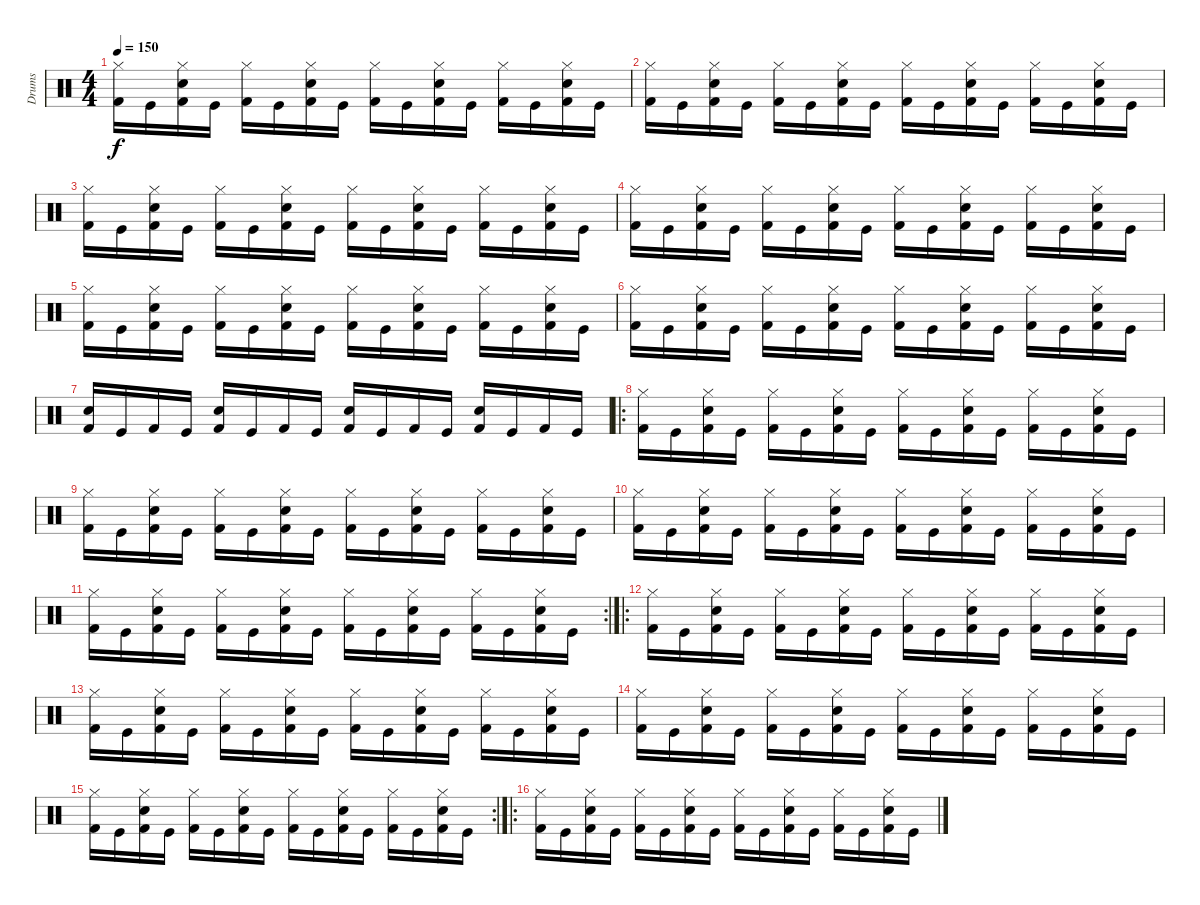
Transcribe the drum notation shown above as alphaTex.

\track ("Drums" "Drums") {instrument percussion}
\staff {score}
\articulation defaults
\ts (4 4)
\tempo 150
\clef neutral
\ks c
("Hi-Hat (closed)" "Kick (hit) 2").16{dy f} "Kick (hit)".16 ("Hi-Hat (closed)" "Snare (hit) 2" "Kick (hit) 2").16 "Kick (hit)".16 ("Hi-Hat (closed)" "Kick (hit) 2").16 "Kick (hit)".16 ("Hi-Hat (closed)" "Snare (hit) 2" "Kick (hit) 2").16 "Kick (hit)".16 ("Hi-Hat (closed)" "Kick (hit) 2").16 "Kick (hit)".16 ("Hi-Hat (closed)" "Snare (hit) 2" "Kick (hit) 2").16 "Kick (hit)".16 ("Hi-Hat (closed)" "Kick (hit) 2").16 "Kick (hit)".16 ("Hi-Hat (closed)" "Snare (hit) 2" "Kick (hit) 2").16 "Kick (hit)".16 |
("Hi-Hat (closed)" "Kick (hit) 2").16 "Kick (hit)".16 ("Hi-Hat (closed)" "Snare (hit) 2" "Kick (hit) 2").16 "Kick (hit)".16 ("Hi-Hat (closed)" "Kick (hit) 2").16 "Kick (hit)".16 ("Hi-Hat (closed)" "Snare (hit) 2" "Kick (hit) 2").16 "Kick (hit)".16 ("Hi-Hat (closed)" "Kick (hit) 2").16 "Kick (hit)".16 ("Hi-Hat (closed)" "Snare (hit) 2" "Kick (hit) 2").16 "Kick (hit)".16 ("Hi-Hat (closed)" "Kick (hit) 2").16 "Kick (hit)".16 ("Hi-Hat (closed)" "Snare (hit) 2" "Kick (hit) 2").16 "Kick (hit)".16 |
("Hi-Hat (closed)" "Kick (hit) 2").16 "Kick (hit)".16 ("Hi-Hat (closed)" "Snare (hit) 2" "Kick (hit) 2").16 "Kick (hit)".16 ("Hi-Hat (closed)" "Kick (hit) 2").16 "Kick (hit)".16 ("Hi-Hat (closed)" "Snare (hit) 2" "Kick (hit) 2").16 "Kick (hit)".16 ("Hi-Hat (closed)" "Kick (hit) 2").16 "Kick (hit)".16 ("Hi-Hat (closed)" "Snare (hit) 2" "Kick (hit) 2").16 "Kick (hit)".16 ("Hi-Hat (closed)" "Kick (hit) 2").16 "Kick (hit)".16 ("Hi-Hat (closed)" "Snare (hit) 2" "Kick (hit) 2").16 "Kick (hit)".16 |
("Hi-Hat (closed)" "Kick (hit) 2").16 "Kick (hit)".16 ("Hi-Hat (closed)" "Snare (hit) 2" "Kick (hit) 2").16 "Kick (hit)".16 ("Hi-Hat (closed)" "Kick (hit) 2").16 "Kick (hit)".16 ("Hi-Hat (closed)" "Snare (hit) 2" "Kick (hit) 2").16 "Kick (hit)".16 ("Hi-Hat (closed)" "Kick (hit) 2").16 "Kick (hit)".16 ("Hi-Hat (closed)" "Snare (hit) 2" "Kick (hit) 2").16 "Kick (hit)".16 ("Hi-Hat (closed)" "Kick (hit) 2").16 "Kick (hit)".16 ("Hi-Hat (closed)" "Snare (hit) 2" "Kick (hit) 2").16 "Kick (hit)".16 |
("Hi-Hat (closed)" "Kick (hit) 2").16 "Kick (hit)".16 ("Hi-Hat (closed)" "Snare (hit) 2" "Kick (hit) 2").16 "Kick (hit)".16 ("Hi-Hat (closed)" "Kick (hit) 2").16 "Kick (hit)".16 ("Hi-Hat (closed)" "Snare (hit) 2" "Kick (hit) 2").16 "Kick (hit)".16 ("Hi-Hat (closed)" "Kick (hit) 2").16 "Kick (hit)".16 ("Hi-Hat (closed)" "Snare (hit) 2" "Kick (hit) 2").16 "Kick (hit)".16 ("Hi-Hat (closed)" "Kick (hit) 2").16 "Kick (hit)".16 ("Hi-Hat (closed)" "Snare (hit) 2" "Kick (hit) 2").16 "Kick (hit)".16 |
("Hi-Hat (closed)" "Kick (hit) 2").16 "Kick (hit)".16 ("Hi-Hat (closed)" "Snare (hit) 2" "Kick (hit) 2").16 "Kick (hit)".16 ("Hi-Hat (closed)" "Kick (hit) 2").16 "Kick (hit)".16 ("Hi-Hat (closed)" "Snare (hit) 2" "Kick (hit) 2").16 "Kick (hit)".16 ("Hi-Hat (closed)" "Kick (hit) 2").16 "Kick (hit)".16 ("Hi-Hat (closed)" "Snare (hit) 2" "Kick (hit) 2").16 "Kick (hit)".16 ("Hi-Hat (closed)" "Kick (hit) 2").16 "Kick (hit)".16 ("Hi-Hat (closed)" "Snare (hit) 2" "Kick (hit) 2").16 "Kick (hit)".16 |
("Snare (hit) 2" "Kick (hit) 2").16 "Kick (hit)".16 "Kick (hit) 2".16 "Kick (hit)".16 ("Snare (hit) 2" "Kick (hit) 2").16 "Kick (hit)".16 "Kick (hit) 2".16 "Kick (hit)".16 ("Snare (hit) 2" "Kick (hit) 2").16 "Kick (hit)".16 "Kick (hit) 2".16 "Kick (hit)".16 ("Snare (hit) 2" "Kick (hit) 2").16 "Kick (hit)".16 "Kick (hit) 2".16 "Kick (hit)".16 |
\ro
("Hi-Hat (closed)" "Kick (hit) 2").16 "Kick (hit)".16 ("Hi-Hat (closed)" "Snare (hit) 2" "Kick (hit) 2").16 "Kick (hit)".16 ("Hi-Hat (closed)" "Kick (hit) 2").16 "Kick (hit)".16 ("Hi-Hat (closed)" "Snare (hit) 2" "Kick (hit) 2").16 "Kick (hit)".16 ("Hi-Hat (closed)" "Kick (hit) 2").16 "Kick (hit)".16 ("Hi-Hat (closed)" "Snare (hit) 2" "Kick (hit) 2").16 "Kick (hit)".16 ("Hi-Hat (closed)" "Kick (hit) 2").16 "Kick (hit)".16 ("Hi-Hat (closed)" "Snare (hit) 2" "Kick (hit) 2").16 "Kick (hit)".16 |
("Hi-Hat (closed)" "Kick (hit) 2").16 "Kick (hit)".16 ("Hi-Hat (closed)" "Snare (hit) 2" "Kick (hit) 2").16 "Kick (hit)".16 ("Hi-Hat (closed)" "Kick (hit) 2").16 "Kick (hit)".16 ("Hi-Hat (closed)" "Snare (hit) 2" "Kick (hit) 2").16 "Kick (hit)".16 ("Hi-Hat (closed)" "Kick (hit) 2").16 "Kick (hit)".16 ("Hi-Hat (closed)" "Snare (hit) 2" "Kick (hit) 2").16 "Kick (hit)".16 ("Hi-Hat (closed)" "Kick (hit) 2").16 "Kick (hit)".16 ("Hi-Hat (closed)" "Snare (hit) 2" "Kick (hit) 2").16 "Kick (hit)".16 |
("Hi-Hat (closed)" "Kick (hit) 2").16 "Kick (hit)".16 ("Hi-Hat (closed)" "Snare (hit) 2" "Kick (hit) 2").16 "Kick (hit)".16 ("Hi-Hat (closed)" "Kick (hit) 2").16 "Kick (hit)".16 ("Hi-Hat (closed)" "Snare (hit) 2" "Kick (hit) 2").16 "Kick (hit)".16 ("Hi-Hat (closed)" "Kick (hit) 2").16 "Kick (hit)".16 ("Hi-Hat (closed)" "Snare (hit) 2" "Kick (hit) 2").16 "Kick (hit)".16 ("Hi-Hat (closed)" "Kick (hit) 2").16 "Kick (hit)".16 ("Hi-Hat (closed)" "Snare (hit) 2" "Kick (hit) 2").16 "Kick (hit)".16 |
\rc 2
("Hi-Hat (closed)" "Kick (hit) 2").16 "Kick (hit)".16 ("Hi-Hat (closed)" "Snare (hit) 2" "Kick (hit) 2").16 "Kick (hit)".16 ("Hi-Hat (closed)" "Kick (hit) 2").16 "Kick (hit)".16 ("Hi-Hat (closed)" "Snare (hit) 2" "Kick (hit) 2").16 "Kick (hit)".16 ("Hi-Hat (closed)" "Kick (hit) 2").16 "Kick (hit)".16 ("Hi-Hat (closed)" "Snare (hit) 2" "Kick (hit) 2").16 "Kick (hit)".16 ("Hi-Hat (closed)" "Kick (hit) 2").16 "Kick (hit)".16 ("Hi-Hat (closed)" "Snare (hit) 2" "Kick (hit) 2").16 "Kick (hit)".16 |
\ro
("Hi-Hat (closed)" "Kick (hit) 2").16 "Kick (hit)".16 ("Hi-Hat (closed)" "Snare (hit) 2" "Kick (hit) 2").16 "Kick (hit)".16 ("Hi-Hat (closed)" "Kick (hit) 2").16 "Kick (hit)".16 ("Hi-Hat (closed)" "Snare (hit) 2" "Kick (hit) 2").16 "Kick (hit)".16 ("Hi-Hat (closed)" "Kick (hit) 2").16 "Kick (hit)".16 ("Hi-Hat (closed)" "Snare (hit) 2" "Kick (hit) 2").16 "Kick (hit)".16 ("Hi-Hat (closed)" "Kick (hit) 2").16 "Kick (hit)".16 ("Hi-Hat (closed)" "Snare (hit) 2" "Kick (hit) 2").16 "Kick (hit)".16 |
("Hi-Hat (closed)" "Kick (hit) 2").16 "Kick (hit)".16 ("Hi-Hat (closed)" "Snare (hit) 2" "Kick (hit) 2").16 "Kick (hit)".16 ("Hi-Hat (closed)" "Kick (hit) 2").16 "Kick (hit)".16 ("Hi-Hat (closed)" "Snare (hit) 2" "Kick (hit) 2").16 "Kick (hit)".16 ("Hi-Hat (closed)" "Kick (hit) 2").16 "Kick (hit)".16 ("Hi-Hat (closed)" "Snare (hit) 2" "Kick (hit) 2").16 "Kick (hit)".16 ("Hi-Hat (closed)" "Kick (hit) 2").16 "Kick (hit)".16 ("Hi-Hat (closed)" "Snare (hit) 2" "Kick (hit) 2").16 "Kick (hit)".16 |
("Hi-Hat (closed)" "Kick (hit) 2").16 "Kick (hit)".16 ("Hi-Hat (closed)" "Snare (hit) 2" "Kick (hit) 2").16 "Kick (hit)".16 ("Hi-Hat (closed)" "Kick (hit) 2").16 "Kick (hit)".16 ("Hi-Hat (closed)" "Snare (hit) 2" "Kick (hit) 2").16 "Kick (hit)".16 ("Hi-Hat (closed)" "Kick (hit) 2").16 "Kick (hit)".16 ("Hi-Hat (closed)" "Snare (hit) 2" "Kick (hit) 2").16 "Kick (hit)".16 ("Hi-Hat (closed)" "Kick (hit) 2").16 "Kick (hit)".16 ("Hi-Hat (closed)" "Snare (hit) 2" "Kick (hit) 2").16 "Kick (hit)".16 |
\rc 2
("Hi-Hat (closed)" "Kick (hit) 2").16 "Kick (hit)".16 ("Hi-Hat (closed)" "Snare (hit) 2" "Kick (hit) 2").16 "Kick (hit)".16 ("Hi-Hat (closed)" "Kick (hit) 2").16 "Kick (hit)".16 ("Hi-Hat (closed)" "Snare (hit) 2" "Kick (hit) 2").16 "Kick (hit)".16 ("Hi-Hat (closed)" "Kick (hit) 2").16 "Kick (hit)".16 ("Hi-Hat (closed)" "Snare (hit) 2" "Kick (hit) 2").16 "Kick (hit)".16 ("Hi-Hat (closed)" "Kick (hit) 2").16 "Kick (hit)".16 ("Hi-Hat (closed)" "Snare (hit) 2" "Kick (hit) 2").16 "Kick (hit)".16 |
\ro
("Hi-Hat (closed)" "Kick (hit) 2").16 "Kick (hit)".16 ("Hi-Hat (closed)" "Snare (hit) 2" "Kick (hit) 2").16 "Kick (hit)".16 ("Hi-Hat (closed)" "Kick (hit) 2").16 "Kick (hit)".16 ("Hi-Hat (closed)" "Snare (hit) 2" "Kick (hit) 2").16 "Kick (hit)".16 ("Hi-Hat (closed)" "Kick (hit) 2").16 "Kick (hit)".16 ("Hi-Hat (closed)" "Snare (hit) 2" "Kick (hit) 2").16 "Kick (hit)".16 ("Hi-Hat (closed)" "Kick (hit) 2").16 "Kick (hit)".16 ("Hi-Hat (closed)" "Snare (hit) 2" "Kick (hit) 2").16 "Kick (hit)".16
